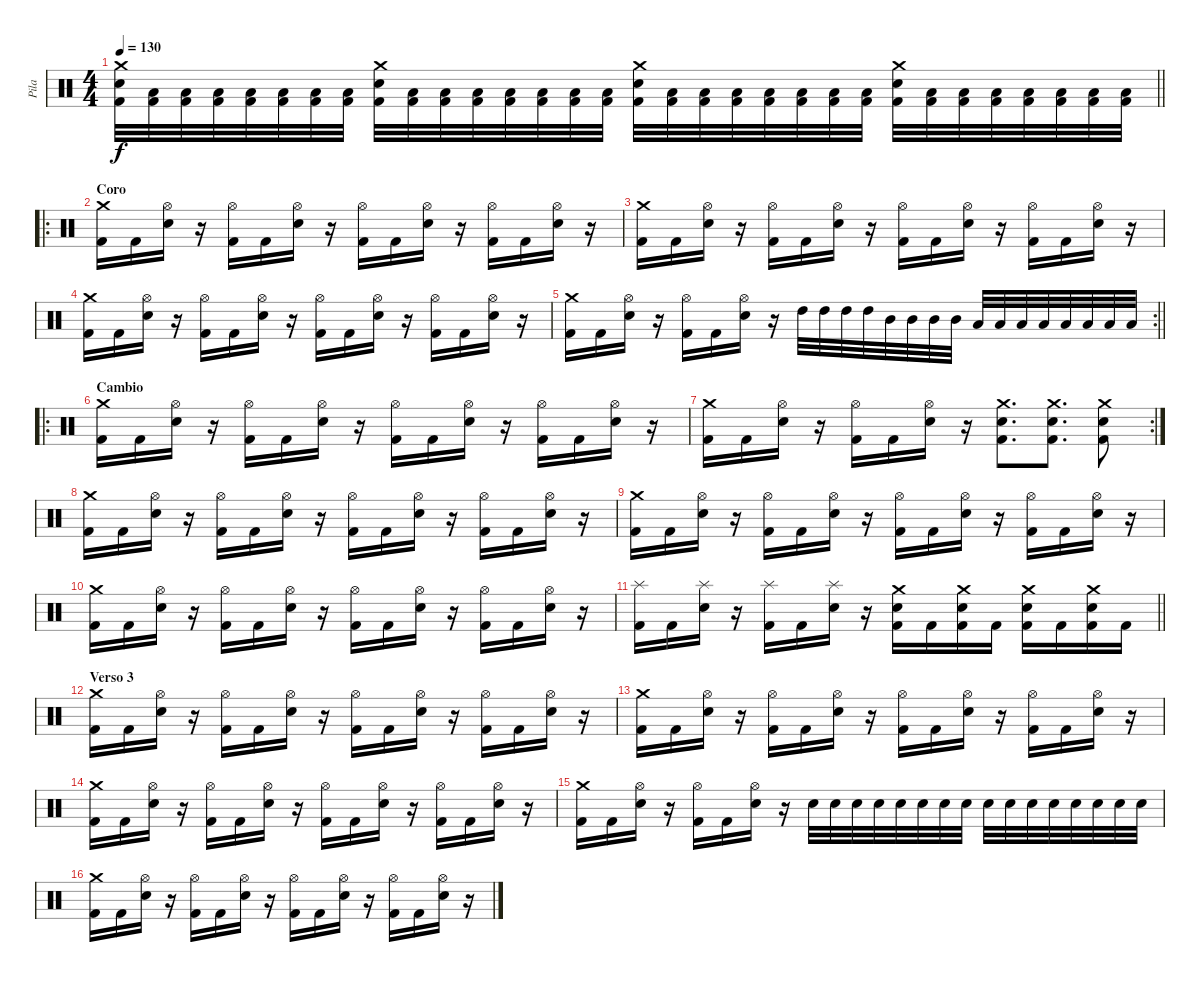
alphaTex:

\track ("Pila" "Pila") {instrument percussion}
\staff {score}
\articulation defaults
\ts (4 4)
\tempo 130
\clef neutral
\barLineRight lightlight
\ks c
("Crash medium (hit)" "Electric Snare (hit)" "Kick (hit) 2").32{dy f} ("Low Floor Tom (hit)" "Kick (hit) 2").32 ("Low Floor Tom (hit)" "Kick (hit) 2").32 ("Low Floor Tom (hit)" "Kick (hit) 2").32 ("Low Floor Tom (hit)" "Kick (hit) 2").32 ("Low Floor Tom (hit)" "Kick (hit) 2").32 ("Low Floor Tom (hit)" "Kick (hit) 2").32 ("Low Floor Tom (hit)" "Kick (hit) 2").32 ("Crash medium (hit)" "Electric Snare (hit)" "Kick (hit) 2").32 ("Low Floor Tom (hit)" "Kick (hit) 2").32 ("Low Floor Tom (hit)" "Kick (hit) 2").32 ("Low Floor Tom (hit)" "Kick (hit) 2").32 ("Low Floor Tom (hit)" "Kick (hit) 2").32 ("Low Floor Tom (hit)" "Kick (hit) 2").32 ("Low Floor Tom (hit)" "Kick (hit) 2").32 ("Low Floor Tom (hit)" "Kick (hit) 2").32 ("Crash medium (hit)" "Electric Snare (hit)" "Kick (hit) 2").32 ("Low Floor Tom (hit)" "Kick (hit) 2").32 ("Low Floor Tom (hit)" "Kick (hit) 2").32 ("Low Floor Tom (hit)" "Kick (hit) 2").32 ("Low Floor Tom (hit)" "Kick (hit) 2").32 ("Low Floor Tom (hit)" "Kick (hit) 2").32 ("Low Floor Tom (hit)" "Kick (hit) 2").32 ("Low Floor Tom (hit)" "Kick (hit) 2").32 ("Crash medium (hit)" "Electric Snare (hit)" "Kick (hit) 2").32 ("Low Floor Tom (hit)" "Kick (hit) 2").32 ("Low Floor Tom (hit)" "Kick (hit) 2").32 ("Low Floor Tom (hit)" "Kick (hit) 2").32 ("Low Floor Tom (hit)" "Kick (hit) 2").32 ("Low Floor Tom (hit)" "Kick (hit) 2").32 ("Low Floor Tom (hit)" "Kick (hit) 2").32 ("Low Floor Tom (hit)" "Kick (hit) 2").32 |
\ro
\section ("" "Coro")
("Crash medium (hit)" "Kick (hit) 2").16 "Kick (hit) 2".16 ("Hi-Hat (open)" "Electric Snare (hit)").16 r.16 ("Hi-Hat (open)" "Kick (hit) 2").16 "Kick (hit) 2".16 ("Hi-Hat (open)" "Electric Snare (hit)").16 r.16 ("Hi-Hat (open)" "Kick (hit) 2").16 "Kick (hit) 2".16 ("Hi-Hat (open)" "Electric Snare (hit)").16 r.16 ("Hi-Hat (open)" "Kick (hit) 2").16 "Kick (hit) 2".16 ("Hi-Hat (open)" "Electric Snare (hit)").16 r.16 |
("Crash medium (hit)" "Kick (hit) 2").16 "Kick (hit) 2".16 ("Hi-Hat (open)" "Electric Snare (hit)").16 r.16 ("Hi-Hat (open)" "Kick (hit) 2").16 "Kick (hit) 2".16 ("Hi-Hat (open)" "Electric Snare (hit)").16 r.16 ("Hi-Hat (open)" "Kick (hit) 2").16 "Kick (hit) 2".16 ("Hi-Hat (open)" "Electric Snare (hit)").16 r.16 ("Hi-Hat (open)" "Kick (hit) 2").16 "Kick (hit) 2".16 ("Hi-Hat (open)" "Electric Snare (hit)").16 r.16 |
("Crash medium (hit)" "Kick (hit) 2").16 "Kick (hit) 2".16 ("Hi-Hat (open)" "Electric Snare (hit)").16 r.16 ("Hi-Hat (open)" "Kick (hit) 2").16 "Kick (hit) 2".16 ("Hi-Hat (open)" "Electric Snare (hit)").16 r.16 ("Hi-Hat (open)" "Kick (hit) 2").16 "Kick (hit) 2".16 ("Hi-Hat (open)" "Electric Snare (hit)").16 r.16 ("Hi-Hat (open)" "Kick (hit) 2").16 "Kick (hit) 2".16 ("Hi-Hat (open)" "Electric Snare (hit)").16 r.16 |
\rc 2
\barLineRight lightlight
("Crash medium (hit)" "Kick (hit) 2").16 "Kick (hit) 2".16 ("Hi-Hat (open)" "Electric Snare (hit)").16 r.16 ("Hi-Hat (open)" "Kick (hit) 2").16 "Kick (hit) 2".16 ("Hi-Hat (open)" "Electric Snare (hit)").16 r.16 "High Tom (hit)".32 "High Tom (hit)".32 "High Tom (hit)".32 "High Tom (hit)".32 "Mid Tom (hit)".32 "Mid Tom (hit)".32 "Mid Tom (hit)".32 "Mid Tom (hit)".32 "Low Tom (hit)".32 "Low Tom (hit)".32 "Low Tom (hit)".32 "Low Tom (hit)".32 "Low Floor Tom (hit)".32 "Low Floor Tom (hit)".32 "Low Floor Tom (hit)".32 "Low Floor Tom (hit)".32 |
\ro
\section ("" "Cambio")
("Crash medium (hit)" "Kick (hit) 2").16 "Kick (hit) 2".16 ("Hi-Hat (open)" "Electric Snare (hit)").16 r.16 ("Hi-Hat (open)" "Kick (hit) 2").16 "Kick (hit) 2".16 ("Hi-Hat (open)" "Electric Snare (hit)").16 r.16 ("Hi-Hat (open)" "Kick (hit) 2").16 "Kick (hit) 2".16 ("Hi-Hat (open)" "Electric Snare (hit)").16 r.16 ("Hi-Hat (open)" "Kick (hit) 2").16 "Kick (hit) 2".16 ("Hi-Hat (open)" "Electric Snare (hit)").16 r.16 |
\rc 2
("Crash medium (hit)" "Kick (hit) 2").16 "Kick (hit) 2".16 ("Hi-Hat (open)" "Electric Snare (hit)").16 r.16 ("Hi-Hat (open)" "Kick (hit) 2").16 "Kick (hit) 2".16 ("Hi-Hat (open)" "Electric Snare (hit)").16 r.16 ("Crash medium (hit)" "Electric Snare (hit)" "Kick (hit) 2").8{d} ("Crash medium (hit)" "Electric Snare (hit)" "Kick (hit) 2").8{d} ("Crash medium (hit)" "Electric Snare (hit)" "Kick (hit) 2").8 |
("Crash medium (hit)" "Kick (hit) 2").16 "Kick (hit) 2".16 ("Hi-Hat (open)" "Electric Snare (hit)").16 r.16 ("Hi-Hat (open)" "Kick (hit) 2").16 "Kick (hit) 2".16 ("Hi-Hat (open)" "Electric Snare (hit)").16 r.16 ("Hi-Hat (open)" "Kick (hit) 2").16 "Kick (hit) 2".16 ("Hi-Hat (open)" "Electric Snare (hit)").16 r.16 ("Hi-Hat (open)" "Kick (hit) 2").16 "Kick (hit) 2".16 ("Hi-Hat (open)" "Electric Snare (hit)").16 r.16 |
("Crash medium (hit)" "Kick (hit) 2").16 "Kick (hit) 2".16 ("Hi-Hat (open)" "Electric Snare (hit)").16 r.16 ("Hi-Hat (open)" "Kick (hit) 2").16 "Kick (hit) 2".16 ("Hi-Hat (open)" "Electric Snare (hit)").16 r.16 ("Hi-Hat (open)" "Kick (hit) 2").16 "Kick (hit) 2".16 ("Hi-Hat (open)" "Electric Snare (hit)").16 r.16 ("Hi-Hat (open)" "Kick (hit) 2").16 "Kick (hit) 2".16 ("Hi-Hat (open)" "Electric Snare (hit)").16 r.16 |
("Crash medium (hit)" "Kick (hit) 2").16 "Kick (hit) 2".16 ("Hi-Hat (open)" "Electric Snare (hit)").16 r.16 ("Hi-Hat (open)" "Kick (hit) 2").16 "Kick (hit) 2".16 ("Hi-Hat (open)" "Electric Snare (hit)").16 r.16 ("Hi-Hat (open)" "Kick (hit) 2").16 "Kick (hit) 2".16 ("Hi-Hat (open)" "Electric Snare (hit)").16 r.16 ("Hi-Hat (open)" "Kick (hit) 2").16 "Kick (hit) 2".16 ("Hi-Hat (open)" "Electric Snare (hit)").16 r.16 |
\barLineRight lightlight
("Splash (hit)" "Kick (hit) 2").16 "Kick (hit) 2".16 ("Splash (hit)" "Electric Snare (hit)").16 r.16 ("Splash (hit)" "Kick (hit) 2").16 "Kick (hit) 2".16 ("Splash (hit)" "Electric Snare (hit)").16 r.16 ("Crash medium (hit)" "Electric Snare (hit)" "Kick (hit) 2").16 "Kick (hit) 2".16 ("Crash medium (hit)" "Electric Snare (hit)" "Kick (hit) 2").16 "Kick (hit) 2".16 ("Crash medium (hit)" "Electric Snare (hit)" "Kick (hit) 2").16 "Kick (hit) 2".16 ("Crash medium (hit)" "Electric Snare (hit)" "Kick (hit) 2").16 "Kick (hit) 2".16 |
\section ("" "Verso 3")
("Crash medium (hit)" "Kick (hit) 2").16 "Kick (hit) 2".16 ("Hi-Hat (open)" "Electric Snare (hit)").16 r.16 ("Hi-Hat (open)" "Kick (hit) 2").16 "Kick (hit) 2".16 ("Hi-Hat (open)" "Electric Snare (hit)").16 r.16 ("Hi-Hat (open)" "Kick (hit) 2").16 "Kick (hit) 2".16 ("Hi-Hat (open)" "Electric Snare (hit)").16 r.16 ("Hi-Hat (open)" "Kick (hit) 2").16 "Kick (hit) 2".16 ("Hi-Hat (open)" "Electric Snare (hit)").16 r.16 |
("Crash medium (hit)" "Kick (hit) 2").16 "Kick (hit) 2".16 ("Hi-Hat (open)" "Electric Snare (hit)").16 r.16 ("Hi-Hat (open)" "Kick (hit) 2").16 "Kick (hit) 2".16 ("Hi-Hat (open)" "Electric Snare (hit)").16 r.16 ("Hi-Hat (open)" "Kick (hit) 2").16 "Kick (hit) 2".16 ("Hi-Hat (open)" "Electric Snare (hit)").16 r.16 ("Hi-Hat (open)" "Kick (hit) 2").16 "Kick (hit) 2".16 ("Hi-Hat (open)" "Electric Snare (hit)").16 r.16 |
("Crash medium (hit)" "Kick (hit) 2").16 "Kick (hit) 2".16 ("Hi-Hat (open)" "Electric Snare (hit)").16 r.16 ("Hi-Hat (open)" "Kick (hit) 2").16 "Kick (hit) 2".16 ("Hi-Hat (open)" "Electric Snare (hit)").16 r.16 ("Hi-Hat (open)" "Kick (hit) 2").16 "Kick (hit) 2".16 ("Hi-Hat (open)" "Electric Snare (hit)").16 r.16 ("Hi-Hat (open)" "Kick (hit) 2").16 "Kick (hit) 2".16 ("Hi-Hat (open)" "Electric Snare (hit)").16 r.16 |
("Crash medium (hit)" "Kick (hit) 2").16 "Kick (hit) 2".16 ("Hi-Hat (open)" "Electric Snare (hit)").16 r.16 ("Hi-Hat (open)" "Kick (hit) 2").16 "Kick (hit) 2".16 ("Hi-Hat (open)" "Electric Snare (hit)").16 r.16 "Electric Snare (hit)".32 "Electric Snare (hit)".32 "Electric Snare (hit)".32 "Electric Snare (hit)".32 "Electric Snare (hit)".32 "Electric Snare (hit)".32 "Electric Snare (hit)".32 "Electric Snare (hit)".32 "Electric Snare (hit)".32 "Electric Snare (hit)".32 "Electric Snare (hit)".32 "Electric Snare (hit)".32 "Electric Snare (hit)".32 "Electric Snare (hit)".32 "Electric Snare (hit)".32 "Electric Snare (hit)".32 |
("Crash medium (hit)" "Kick (hit) 2").16 "Kick (hit) 2".16 ("Hi-Hat (open)" "Electric Snare (hit)").16 r.16 ("Hi-Hat (open)" "Kick (hit) 2").16 "Kick (hit) 2".16 ("Hi-Hat (open)" "Electric Snare (hit)").16 r.16 ("Hi-Hat (open)" "Kick (hit) 2").16 "Kick (hit) 2".16 ("Hi-Hat (open)" "Electric Snare (hit)").16 r.16 ("Hi-Hat (open)" "Kick (hit) 2").16 "Kick (hit) 2".16 ("Hi-Hat (open)" "Electric Snare (hit)").16 r.16
